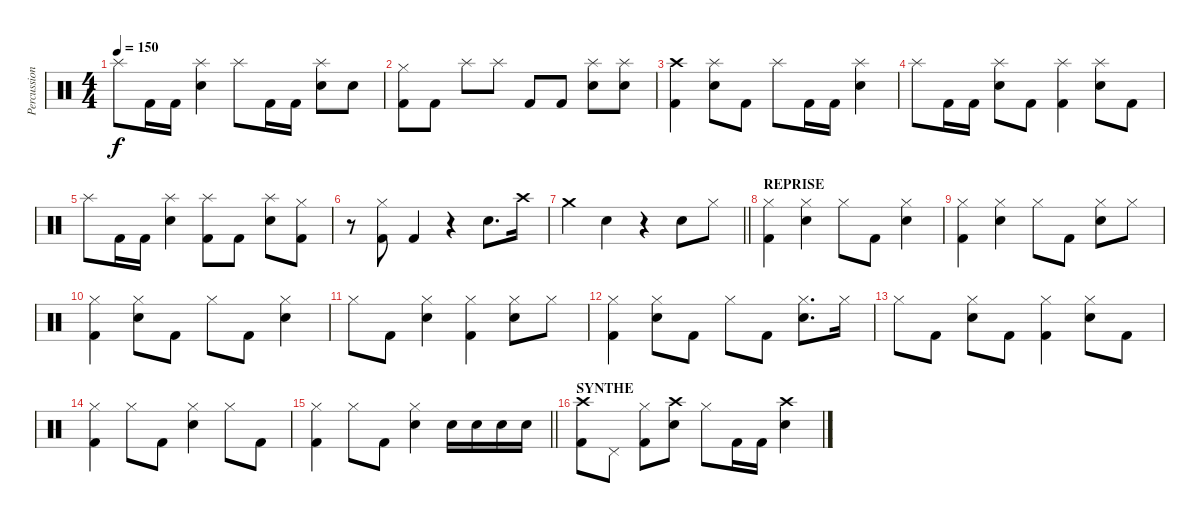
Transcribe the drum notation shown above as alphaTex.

\track ("Percussion" "Percussion") {instrument percussion}
\staff {score}
\articulation defaults
\ts (4 4)
\tempo 150
\clef neutral
\ks c "Splash (hit)".8{dy f} "Kick (hit) 2".16 "Kick (hit) 2".16
("Electric Snare (hit)" "Splash (hit)").4 "Splash (hit)".8 "Kick (hit) 2".16 "Kick (hit) 2".16 ("Electric Snare (hit)" "Splash (hit)").8 "Electric Snare (hit)".8 |
("Kick (hit) 2" "Hi-Hat (closed)").8 "Kick (hit) 2".8 "Splash (hit)".8 "Splash (hit)".8 "Kick (hit) 2".8 "Kick (hit) 2".8 ("Electric Snare (hit)" "Splash (hit)").8 ("Electric Snare (hit)" "Splash (hit)").8 |
("Kick (hit) 2" "Crash high (hit)").4 ("Electric Snare (hit)" "Splash (hit)").8 "Kick (hit) 2".8 "Splash (hit)".8 "Kick (hit) 2".16 "Kick (hit) 2".16 ("Electric Snare (hit)" "Splash (hit)").4 |
"Splash (hit)".8 "Kick (hit) 2".16 "Kick (hit) 2".16 ("Electric Snare (hit)" "Splash (hit)").8 "Kick (hit) 2".8 ("Kick (hit) 2" "Splash (hit)").4 ("Electric Snare (hit)" "Splash (hit)").8 "Kick (hit) 2".8 |
"Splash (hit)".8 "Kick (hit) 2".16 "Kick (hit) 2".16 ("Electric Snare (hit)" "Splash (hit)").4 ("Kick (hit) 2" "Splash (hit)").8 "Kick (hit) 2".8 ("Electric Snare (hit)" "Splash (hit)").8 ("Kick (hit) 2" "Hi-Hat (closed)").8 |
r.8 ("Kick (hit) 2" "Hi-Hat (closed)").8 "Kick (hit) 2".4 r.4 "Electric Snare (hit)".8{d} "Crash high (hit)".16 |
\barLineRight lightlight "Crash medium (hit)".4 "Electric Snare (hit)".4
r.4 "Electric Snare (hit)".8 "Hi-Hat (closed)".8 |
\section ("" "REPRISE")
("Kick (hit) 2" "Hi-Hat (closed)").4 ("Electric Snare (hit)" "Hi-Hat (closed)").4 "Hi-Hat (closed)".8 "Kick (hit) 2".8 ("Electric Snare (hit)" "Hi-Hat (closed)").4 |
("Kick (hit) 2" "Hi-Hat (closed)").4 ("Electric Snare (hit)" "Hi-Hat (closed)").4 "Hi-Hat (closed)".8 "Kick (hit) 2".8 ("Electric Snare (hit)" "Hi-Hat (closed)").8 "Hi-Hat (closed)".8 |
("Kick (hit) 2" "Hi-Hat (closed)").4 ("Electric Snare (hit)" "Hi-Hat (closed)").8 "Kick (hit) 2".8 "Hi-Hat (closed)".8 "Kick (hit) 2".8 ("Electric Snare (hit)" "Hi-Hat (closed)").4 |
"Hi-Hat (closed)".8 "Kick (hit) 2".8 ("Electric Snare (hit)" "Hi-Hat (closed)").4 ("Kick (hit) 2" "Hi-Hat (closed)").4 ("Electric Snare (hit)" "Hi-Hat (closed)").8 "Hi-Hat (closed)".8 |
("Kick (hit) 2" "Hi-Hat (closed)").4 ("Electric Snare (hit)" "Hi-Hat (closed)").8 "Kick (hit) 2".8 "Hi-Hat (closed)".8 "Kick (hit) 2".8 ("Electric Snare (hit)" "Hi-Hat (closed)").8{d} "Hi-Hat (closed)".16 |
"Hi-Hat (closed)".8 "Kick (hit) 2".8 ("Electric Snare (hit)" "Hi-Hat (closed)").8 "Kick (hit) 2".8 ("Kick (hit) 2" "Hi-Hat (closed)").4 ("Electric Snare (hit)" "Hi-Hat (closed)").8 "Kick (hit) 2".8 |
("Kick (hit) 2" "Hi-Hat (closed)").4 "Hi-Hat (closed)".8 "Kick (hit) 2".8 ("Electric Snare (hit)" "Hi-Hat (closed)").4 "Hi-Hat (closed)".8 "Kick (hit) 2".8 |
\barLineRight lightlight
("Kick (hit) 2" "Hi-Hat (closed)").4 "Hi-Hat (closed)".8 "Kick (hit) 2".8 ("Electric Snare (hit)" "Hi-Hat (closed)").4 "Electric Snare (hit)".16 "Electric Snare (hit)".16 "Electric Snare (hit)".16 "Snare (hit)".16 |
\section ("" "SYNTHE")
("Kick (hit) 2" "Crash high (hit)").8 "Pedal Hi-Hat (hit)".8 ("Kick (hit) 2" "Hi-Hat (closed)").8 ("Electric Snare (hit)" "Crash high (hit)").8 "Hi-Hat (closed)".8 "Kick (hit) 2".16 "Kick (hit) 2".16 ("Electric Snare (hit)" "Crash high (hit)").4
